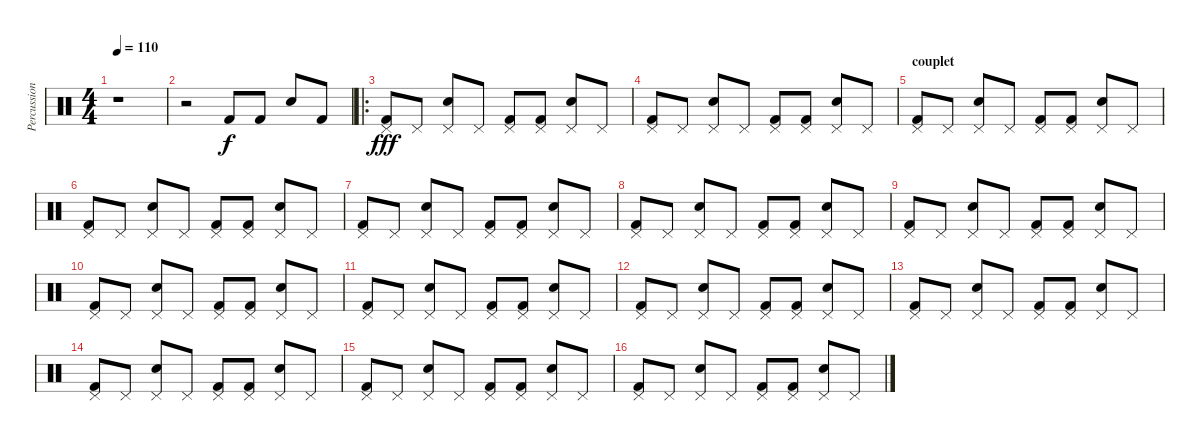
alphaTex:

\track ("Percussions" "Percussion") {instrument percussion}
\staff {score}
\articulation defaults
\ts (4 4)
\tempo 110
\clef neutral
\ks c
r.1{dy f} |
r.2 "Kick (hit) 2".8 "Kick (hit) 2".8 "Electric Snare (hit)".8 "Kick (hit) 2".8 |
\ro
("Pedal Hi-Hat (hit)" "Kick (hit) 2").8{dy fff} "Pedal Hi-Hat (hit)".8 ("Pedal Hi-Hat (hit)" "Electric Snare (hit)").8 "Pedal Hi-Hat (hit)".8 ("Pedal Hi-Hat (hit)" "Kick (hit) 2").8 ("Pedal Hi-Hat (hit)" "Kick (hit) 2").8 ("Pedal Hi-Hat (hit)" "Electric Snare (hit)").8 "Pedal Hi-Hat (hit)".8 |
("Pedal Hi-Hat (hit)" "Kick (hit) 2").8 "Pedal Hi-Hat (hit)".8 ("Pedal Hi-Hat (hit)" "Electric Snare (hit)").8 "Pedal Hi-Hat (hit)".8 ("Pedal Hi-Hat (hit)" "Kick (hit) 2").8 ("Pedal Hi-Hat (hit)" "Kick (hit) 2").8 ("Pedal Hi-Hat (hit)" "Electric Snare (hit)").8 "Pedal Hi-Hat (hit)".8 |
\section ("" "couplet")
("Pedal Hi-Hat (hit)" "Kick (hit) 2").8 "Pedal Hi-Hat (hit)".8 ("Pedal Hi-Hat (hit)" "Electric Snare (hit)").8 "Pedal Hi-Hat (hit)".8 ("Pedal Hi-Hat (hit)" "Kick (hit) 2").8 ("Pedal Hi-Hat (hit)" "Kick (hit) 2").8 ("Pedal Hi-Hat (hit)" "Electric Snare (hit)").8 "Pedal Hi-Hat (hit)".8 |
("Pedal Hi-Hat (hit)" "Kick (hit) 2").8 "Pedal Hi-Hat (hit)".8 ("Pedal Hi-Hat (hit)" "Electric Snare (hit)").8 "Pedal Hi-Hat (hit)".8 ("Pedal Hi-Hat (hit)" "Kick (hit) 2").8 ("Pedal Hi-Hat (hit)" "Kick (hit) 2").8 ("Pedal Hi-Hat (hit)" "Electric Snare (hit)").8 "Pedal Hi-Hat (hit)".8 |
("Pedal Hi-Hat (hit)" "Kick (hit) 2").8 "Pedal Hi-Hat (hit)".8 ("Pedal Hi-Hat (hit)" "Electric Snare (hit)").8 "Pedal Hi-Hat (hit)".8 ("Pedal Hi-Hat (hit)" "Kick (hit) 2").8 ("Pedal Hi-Hat (hit)" "Kick (hit) 2").8 ("Pedal Hi-Hat (hit)" "Electric Snare (hit)").8 "Pedal Hi-Hat (hit)".8 |
("Pedal Hi-Hat (hit)" "Kick (hit) 2").8 "Pedal Hi-Hat (hit)".8 ("Pedal Hi-Hat (hit)" "Electric Snare (hit)").8 "Pedal Hi-Hat (hit)".8 ("Pedal Hi-Hat (hit)" "Kick (hit) 2").8 ("Pedal Hi-Hat (hit)" "Kick (hit) 2").8 ("Pedal Hi-Hat (hit)" "Electric Snare (hit)").8 "Pedal Hi-Hat (hit)".8 |
("Pedal Hi-Hat (hit)" "Kick (hit) 2").8 "Pedal Hi-Hat (hit)".8 ("Pedal Hi-Hat (hit)" "Electric Snare (hit)").8 "Pedal Hi-Hat (hit)".8 ("Pedal Hi-Hat (hit)" "Kick (hit) 2").8 ("Pedal Hi-Hat (hit)" "Kick (hit) 2").8 ("Pedal Hi-Hat (hit)" "Electric Snare (hit)").8 "Pedal Hi-Hat (hit)".8 |
("Pedal Hi-Hat (hit)" "Kick (hit) 2").8 "Pedal Hi-Hat (hit)".8 ("Pedal Hi-Hat (hit)" "Electric Snare (hit)").8 "Pedal Hi-Hat (hit)".8 ("Pedal Hi-Hat (hit)" "Kick (hit) 2").8 ("Pedal Hi-Hat (hit)" "Kick (hit) 2").8 ("Pedal Hi-Hat (hit)" "Electric Snare (hit)").8 "Pedal Hi-Hat (hit)".8 |
("Pedal Hi-Hat (hit)" "Kick (hit) 2").8 "Pedal Hi-Hat (hit)".8 ("Pedal Hi-Hat (hit)" "Electric Snare (hit)").8 "Pedal Hi-Hat (hit)".8 ("Pedal Hi-Hat (hit)" "Kick (hit) 2").8 ("Pedal Hi-Hat (hit)" "Kick (hit) 2").8 ("Pedal Hi-Hat (hit)" "Electric Snare (hit)").8 "Pedal Hi-Hat (hit)".8 |
("Pedal Hi-Hat (hit)" "Kick (hit) 2").8 "Pedal Hi-Hat (hit)".8 ("Pedal Hi-Hat (hit)" "Electric Snare (hit)").8 "Pedal Hi-Hat (hit)".8 ("Pedal Hi-Hat (hit)" "Kick (hit) 2").8 ("Pedal Hi-Hat (hit)" "Kick (hit) 2").8 ("Pedal Hi-Hat (hit)" "Electric Snare (hit)").8 "Pedal Hi-Hat (hit)".8 |
("Pedal Hi-Hat (hit)" "Kick (hit) 2").8 "Pedal Hi-Hat (hit)".8 ("Pedal Hi-Hat (hit)" "Electric Snare (hit)").8 "Pedal Hi-Hat (hit)".8 ("Pedal Hi-Hat (hit)" "Kick (hit) 2").8 ("Pedal Hi-Hat (hit)" "Kick (hit) 2").8 ("Pedal Hi-Hat (hit)" "Electric Snare (hit)").8 "Pedal Hi-Hat (hit)".8 |
("Pedal Hi-Hat (hit)" "Kick (hit) 2").8 "Pedal Hi-Hat (hit)".8 ("Pedal Hi-Hat (hit)" "Electric Snare (hit)").8 "Pedal Hi-Hat (hit)".8 ("Pedal Hi-Hat (hit)" "Kick (hit) 2").8 ("Pedal Hi-Hat (hit)" "Kick (hit) 2").8 ("Pedal Hi-Hat (hit)" "Electric Snare (hit)").8 "Pedal Hi-Hat (hit)".8 |
("Pedal Hi-Hat (hit)" "Kick (hit) 2").8 "Pedal Hi-Hat (hit)".8 ("Pedal Hi-Hat (hit)" "Electric Snare (hit)").8 "Pedal Hi-Hat (hit)".8 ("Pedal Hi-Hat (hit)" "Kick (hit) 2").8 ("Pedal Hi-Hat (hit)" "Kick (hit) 2").8 ("Pedal Hi-Hat (hit)" "Electric Snare (hit)").8 "Pedal Hi-Hat (hit)".8 |
("Pedal Hi-Hat (hit)" "Kick (hit) 2").8 "Pedal Hi-Hat (hit)".8 ("Pedal Hi-Hat (hit)" "Electric Snare (hit)").8 "Pedal Hi-Hat (hit)".8 ("Pedal Hi-Hat (hit)" "Kick (hit) 2").8 ("Pedal Hi-Hat (hit)" "Kick (hit) 2").8 ("Pedal Hi-Hat (hit)" "Electric Snare (hit)").8 "Pedal Hi-Hat (hit)".8
